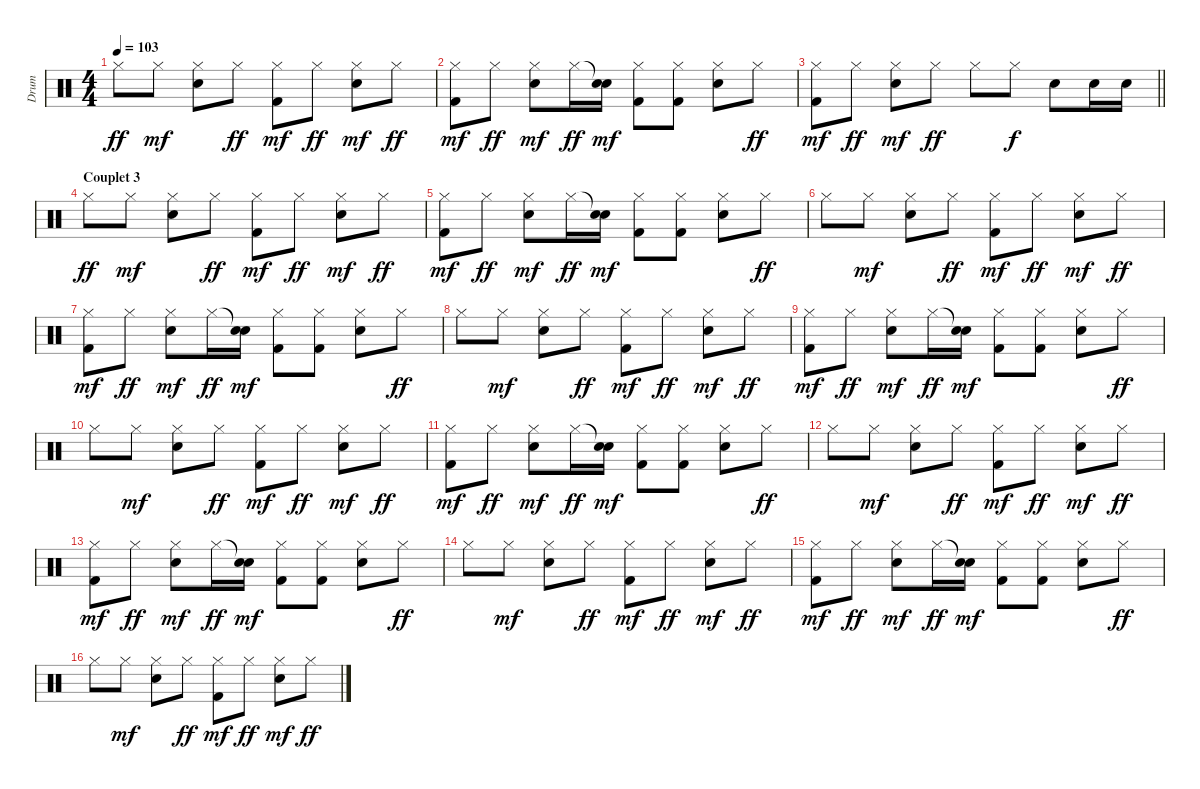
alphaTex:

\track ("Drum" "Drum") {instrument percussion}
\staff {score}
\articulation defaults
\ts (4 4)
\tempo 103
\clef neutral
\ks c "Hi-Hat (closed)".8{dy ff} "Hi-Hat (closed)".8{dy mf}
("Hi-Hat (closed)" "Electric Snare (hit)").8 "Hi-Hat (closed)".8{dy ff} ("Hi-Hat (closed)" "Kick (hit) 2").8{dy mf} "Hi-Hat (closed)".8{dy ff} ("Hi-Hat (closed)" "Electric Snare (hit)").8{dy mf} "Hi-Hat (closed)".8{dy ff} |
("Hi-Hat (closed)" "Kick (hit) 2").8{dy mf} "Hi-Hat (closed)".8{dy ff} ("Hi-Hat (closed)" "Electric Snare (hit)").8{dy mf} "Hi-Hat (closed)".16{dy ff} ("Snare (hit)"{t} "Electric Snare (hit)").16{dy mf} ("Hi-Hat (closed)" "Kick (hit) 2").8 ("Hi-Hat (closed)" "Kick (hit) 2").8 ("Hi-Hat (closed)" "Electric Snare (hit)").8 "Hi-Hat (closed)".8{dy ff} |
\barLineRight lightlight
("Hi-Hat (closed)" "Kick (hit) 2").8{dy mf} "Hi-Hat (closed)".8{dy ff} ("Hi-Hat (closed)" "Electric Snare (hit)").8{dy mf} "Hi-Hat (closed)".8{dy ff} "Hi-Hat (closed)".8 "Hi-Hat (closed)".8{dy f} "Snare (hit) 2".8 "Snare (hit) 2".16 "Snare (hit) 2".16 |
\section ("" "Couplet 3")
"Hi-Hat (closed)".8{dy ff} "Hi-Hat (closed)".8{dy mf} ("Hi-Hat (closed)" "Electric Snare (hit)").8 "Hi-Hat (closed)".8{dy ff} ("Hi-Hat (closed)" "Kick (hit) 2").8{dy mf} "Hi-Hat (closed)".8{dy ff} ("Hi-Hat (closed)" "Electric Snare (hit)").8{dy mf} "Hi-Hat (closed)".8{dy ff} |
("Hi-Hat (closed)" "Kick (hit) 2").8{dy mf} "Hi-Hat (closed)".8{dy ff} ("Hi-Hat (closed)" "Electric Snare (hit)").8{dy mf} "Hi-Hat (closed)".16{dy ff} ("Snare (hit)"{t} "Electric Snare (hit)").16{dy mf} ("Hi-Hat (closed)" "Kick (hit) 2").8 ("Hi-Hat (closed)" "Kick (hit) 2").8 ("Hi-Hat (closed)" "Electric Snare (hit)").8 "Hi-Hat (closed)".8{dy ff} |
"Hi-Hat (closed)".8 "Hi-Hat (closed)".8{dy mf} ("Hi-Hat (closed)" "Electric Snare (hit)").8 "Hi-Hat (closed)".8{dy ff} ("Hi-Hat (closed)" "Kick (hit) 2").8{dy mf} "Hi-Hat (closed)".8{dy ff} ("Hi-Hat (closed)" "Electric Snare (hit)").8{dy mf} "Hi-Hat (closed)".8{dy ff} |
("Hi-Hat (closed)" "Kick (hit) 2").8{dy mf} "Hi-Hat (closed)".8{dy ff} ("Hi-Hat (closed)" "Electric Snare (hit)").8{dy mf} "Hi-Hat (closed)".16{dy ff} ("Snare (hit)"{t} "Electric Snare (hit)").16{dy mf} ("Hi-Hat (closed)" "Kick (hit) 2").8 ("Hi-Hat (closed)" "Kick (hit) 2").8 ("Hi-Hat (closed)" "Electric Snare (hit)").8 "Hi-Hat (closed)".8{dy ff} |
"Hi-Hat (closed)".8 "Hi-Hat (closed)".8{dy mf} ("Hi-Hat (closed)" "Electric Snare (hit)").8 "Hi-Hat (closed)".8{dy ff} ("Hi-Hat (closed)" "Kick (hit) 2").8{dy mf} "Hi-Hat (closed)".8{dy ff} ("Hi-Hat (closed)" "Electric Snare (hit)").8{dy mf} "Hi-Hat (closed)".8{dy ff} |
("Hi-Hat (closed)" "Kick (hit) 2").8{dy mf} "Hi-Hat (closed)".8{dy ff} ("Hi-Hat (closed)" "Electric Snare (hit)").8{dy mf} "Hi-Hat (closed)".16{dy ff} ("Snare (hit)"{t} "Electric Snare (hit)").16{dy mf} ("Hi-Hat (closed)" "Kick (hit) 2").8 ("Hi-Hat (closed)" "Kick (hit) 2").8 ("Hi-Hat (closed)" "Electric Snare (hit)").8 "Hi-Hat (closed)".8{dy ff} |
"Hi-Hat (closed)".8 "Hi-Hat (closed)".8{dy mf} ("Hi-Hat (closed)" "Electric Snare (hit)").8 "Hi-Hat (closed)".8{dy ff} ("Hi-Hat (closed)" "Kick (hit) 2").8{dy mf} "Hi-Hat (closed)".8{dy ff} ("Hi-Hat (closed)" "Electric Snare (hit)").8{dy mf} "Hi-Hat (closed)".8{dy ff} |
("Hi-Hat (closed)" "Kick (hit) 2").8{dy mf} "Hi-Hat (closed)".8{dy ff} ("Hi-Hat (closed)" "Electric Snare (hit)").8{dy mf} "Hi-Hat (closed)".16{dy ff} ("Snare (hit)"{t} "Electric Snare (hit)").16{dy mf} ("Hi-Hat (closed)" "Kick (hit) 2").8 ("Hi-Hat (closed)" "Kick (hit) 2").8 ("Hi-Hat (closed)" "Electric Snare (hit)").8 "Hi-Hat (closed)".8{dy ff} |
"Hi-Hat (closed)".8 "Hi-Hat (closed)".8{dy mf} ("Hi-Hat (closed)" "Electric Snare (hit)").8 "Hi-Hat (closed)".8{dy ff} ("Hi-Hat (closed)" "Kick (hit) 2").8{dy mf} "Hi-Hat (closed)".8{dy ff} ("Hi-Hat (closed)" "Electric Snare (hit)").8{dy mf} "Hi-Hat (closed)".8{dy ff} |
("Hi-Hat (closed)" "Kick (hit) 2").8{dy mf} "Hi-Hat (closed)".8{dy ff} ("Hi-Hat (closed)" "Electric Snare (hit)").8{dy mf} "Hi-Hat (closed)".16{dy ff} ("Snare (hit)"{t} "Electric Snare (hit)").16{dy mf} ("Hi-Hat (closed)" "Kick (hit) 2").8 ("Hi-Hat (closed)" "Kick (hit) 2").8 ("Hi-Hat (closed)" "Electric Snare (hit)").8 "Hi-Hat (closed)".8{dy ff} |
"Hi-Hat (closed)".8 "Hi-Hat (closed)".8{dy mf} ("Hi-Hat (closed)" "Electric Snare (hit)").8 "Hi-Hat (closed)".8{dy ff} ("Hi-Hat (closed)" "Kick (hit) 2").8{dy mf} "Hi-Hat (closed)".8{dy ff} ("Hi-Hat (closed)" "Electric Snare (hit)").8{dy mf} "Hi-Hat (closed)".8{dy ff} |
("Hi-Hat (closed)" "Kick (hit) 2").8{dy mf} "Hi-Hat (closed)".8{dy ff} ("Hi-Hat (closed)" "Electric Snare (hit)").8{dy mf} "Hi-Hat (closed)".16{dy ff} ("Snare (hit)"{t} "Electric Snare (hit)").16{dy mf} ("Hi-Hat (closed)" "Kick (hit) 2").8 ("Hi-Hat (closed)" "Kick (hit) 2").8 ("Hi-Hat (closed)" "Electric Snare (hit)").8 "Hi-Hat (closed)".8{dy ff} |
"Hi-Hat (closed)".8 "Hi-Hat (closed)".8{dy mf} ("Hi-Hat (closed)" "Electric Snare (hit)").8 "Hi-Hat (closed)".8{dy ff} ("Hi-Hat (closed)" "Kick (hit) 2").8{dy mf} "Hi-Hat (closed)".8{dy ff} ("Hi-Hat (closed)" "Electric Snare (hit)").8{dy mf} "Hi-Hat (closed)".8{dy ff}
